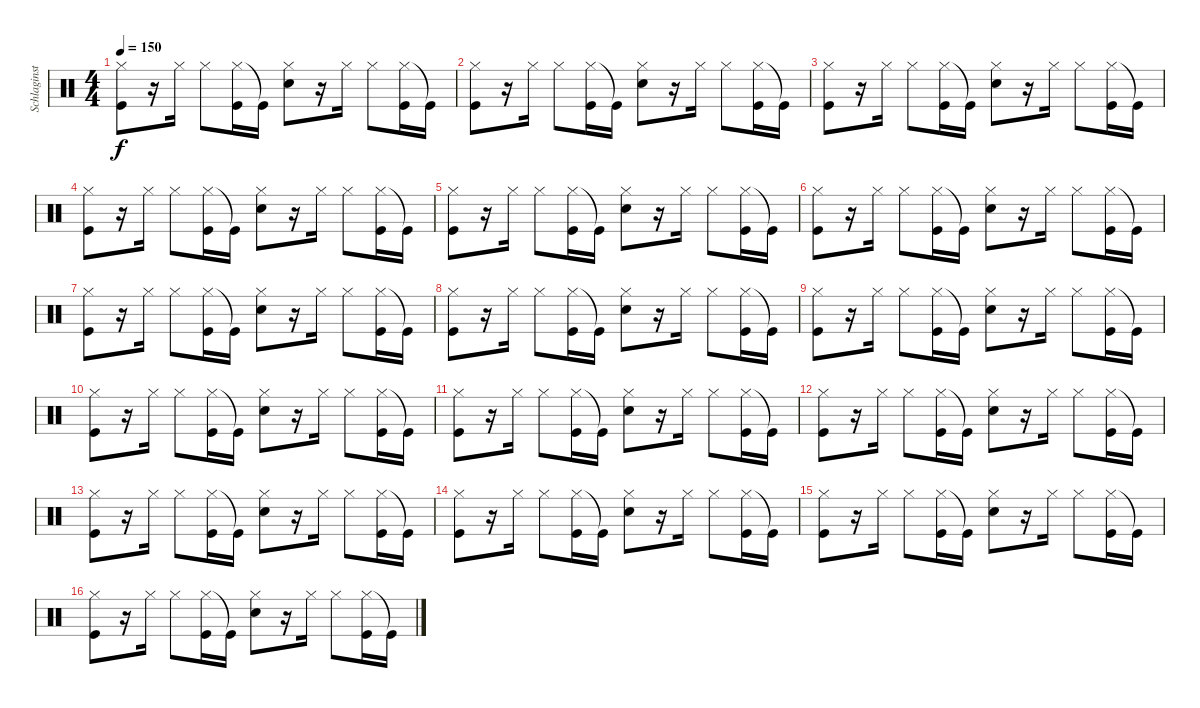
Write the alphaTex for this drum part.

\track ("Schlaginstrumente - Auswahl" "Schlaginst") {instrument percussion}
\staff {score}
\articulation defaults
\ts (4 4)
\tempo 150
\clef neutral
\ks c
("Hi-Hat (closed)" "Kick (hit)").8{dy f} r.16 "Hi-Hat (closed)".16 "Hi-Hat (closed)".8 ("Hi-Hat (closed)" "Kick (hit)").16 "Kick (hit)"{t}.16 ("Hi-Hat (closed)" "Hand Clap (hit)").8 r.16 "Hi-Hat (closed)".16 "Hi-Hat (closed)".8 ("Hi-Hat (closed)" "Kick (hit)").16 "Kick (hit)"{t}.16 |
("Hi-Hat (closed)" "Kick (hit)").8 r.16 "Hi-Hat (closed)".16 "Hi-Hat (closed)".8 ("Hi-Hat (closed)" "Kick (hit)").16 "Kick (hit)"{t}.16 ("Hi-Hat (closed)" "Hand Clap (hit)").8 r.16 "Hi-Hat (closed)".16 "Hi-Hat (closed)".8 ("Hi-Hat (closed)" "Kick (hit)").16 "Kick (hit)"{t}.16 |
("Kick (hit)" "Hi-Hat (closed)").8 r.16 "Hi-Hat (closed)".16 "Hi-Hat (closed)".8 ("Hi-Hat (closed)" "Kick (hit)").16 "Kick (hit)"{t}.16 ("Hi-Hat (closed)" "Hand Clap (hit)").8 r.16 "Hi-Hat (closed)".16 "Hi-Hat (closed)".8 ("Hi-Hat (closed)" "Kick (hit)").16 "Kick (hit)"{t}.16 |
("Hi-Hat (closed)" "Kick (hit)").8 r.16 "Hi-Hat (closed)".16 "Hi-Hat (closed)".8 ("Hi-Hat (closed)" "Kick (hit)").16 "Kick (hit)"{t}.16 ("Hi-Hat (closed)" "Hand Clap (hit)").8 r.16 "Hi-Hat (closed)".16 "Hi-Hat (closed)".8 ("Hi-Hat (closed)" "Kick (hit)").16 "Kick (hit)"{t}.16 |
("Kick (hit)" "Hi-Hat (closed)").8 r.16 "Hi-Hat (closed)".16 "Hi-Hat (closed)".8 ("Hi-Hat (closed)" "Kick (hit)").16 "Kick (hit)"{t}.16 ("Hi-Hat (closed)" "Hand Clap (hit)").8 r.16 "Hi-Hat (closed)".16 "Hi-Hat (closed)".8 ("Hi-Hat (closed)" "Kick (hit)").16 "Kick (hit)"{t}.16 |
("Hi-Hat (closed)" "Kick (hit)").8 r.16 "Hi-Hat (closed)".16 "Hi-Hat (closed)".8 ("Hi-Hat (closed)" "Kick (hit)").16 "Kick (hit)"{t}.16 ("Hi-Hat (closed)" "Hand Clap (hit)").8 r.16 "Hi-Hat (closed)".16 "Hi-Hat (closed)".8 ("Hi-Hat (closed)" "Kick (hit)").16 "Kick (hit)"{t}.16 |
("Kick (hit)" "Hi-Hat (closed)").8 r.16 "Hi-Hat (closed)".16 "Hi-Hat (closed)".8 ("Hi-Hat (closed)" "Kick (hit)").16 "Kick (hit)"{t}.16 ("Hi-Hat (closed)" "Hand Clap (hit)").8 r.16 "Hi-Hat (closed)".16 "Hi-Hat (closed)".8 ("Hi-Hat (closed)" "Kick (hit)").16 "Kick (hit)"{t}.16 |
("Kick (hit)" "Hi-Hat (closed)").8 r.16 "Hi-Hat (closed)".16 "Hi-Hat (closed)".8 ("Hi-Hat (closed)" "Kick (hit)").16 "Kick (hit)"{t}.16 ("Hi-Hat (closed)" "Hand Clap (hit)").8 r.16 "Hi-Hat (closed)".16 "Hi-Hat (closed)".8 ("Hi-Hat (closed)" "Kick (hit)").16 "Kick (hit)"{t}.16 |
("Hi-Hat (closed)" "Kick (hit)").8 r.16 "Hi-Hat (closed)".16 "Hi-Hat (closed)".8 ("Hi-Hat (closed)" "Kick (hit)").16 "Kick (hit)"{t}.16 ("Hi-Hat (closed)" "Hand Clap (hit)").8 r.16 "Hi-Hat (closed)".16 "Hi-Hat (closed)".8 ("Hi-Hat (closed)" "Kick (hit)").16 "Kick (hit)"{t}.16 |
("Hi-Hat (closed)" "Kick (hit)").8 r.16 "Hi-Hat (closed)".16 "Hi-Hat (closed)".8 ("Hi-Hat (closed)" "Kick (hit)").16 "Kick (hit)"{t}.16 ("Hi-Hat (closed)" "Hand Clap (hit)").8 r.16 "Hi-Hat (closed)".16 "Hi-Hat (closed)".8 ("Hi-Hat (closed)" "Kick (hit)").16 "Kick (hit)"{t}.16 |
("Kick (hit)" "Hi-Hat (closed)").8 r.16 "Hi-Hat (closed)".16 "Hi-Hat (closed)".8 ("Hi-Hat (closed)" "Kick (hit)").16 "Kick (hit)"{t}.16 ("Hi-Hat (closed)" "Hand Clap (hit)").8 r.16 "Hi-Hat (closed)".16 "Hi-Hat (closed)".8 ("Hi-Hat (closed)" "Kick (hit)").16 "Kick (hit)"{t}.16 |
("Hi-Hat (closed)" "Kick (hit)").8 r.16 "Hi-Hat (closed)".16 "Hi-Hat (closed)".8 ("Hi-Hat (closed)" "Kick (hit)").16 "Kick (hit)"{t}.16 ("Hi-Hat (closed)" "Hand Clap (hit)").8 r.16 "Hi-Hat (closed)".16 "Hi-Hat (closed)".8 ("Hi-Hat (closed)" "Kick (hit)").16 "Kick (hit)"{t}.16 |
("Kick (hit)" "Hi-Hat (closed)").8 r.16 "Hi-Hat (closed)".16 "Hi-Hat (closed)".8 ("Hi-Hat (closed)" "Kick (hit)").16 "Kick (hit)"{t}.16 ("Hi-Hat (closed)" "Hand Clap (hit)").8 r.16 "Hi-Hat (closed)".16 "Hi-Hat (closed)".8 ("Hi-Hat (closed)" "Kick (hit)").16 "Kick (hit)"{t}.16 |
("Hi-Hat (closed)" "Kick (hit)").8 r.16 "Hi-Hat (closed)".16 "Hi-Hat (closed)".8 ("Hi-Hat (closed)" "Kick (hit)").16 "Kick (hit)"{t}.16 ("Hi-Hat (closed)" "Hand Clap (hit)").8 r.16 "Hi-Hat (closed)".16 "Hi-Hat (closed)".8 ("Hi-Hat (closed)" "Kick (hit)").16 "Kick (hit)"{t}.16 |
("Kick (hit)" "Hi-Hat (closed)").8 r.16 "Hi-Hat (closed)".16 "Hi-Hat (closed)".8 ("Hi-Hat (closed)" "Kick (hit)").16 "Kick (hit)"{t}.16 ("Hi-Hat (closed)" "Hand Clap (hit)").8 r.16 "Hi-Hat (closed)".16 "Hi-Hat (closed)".8 ("Hi-Hat (closed)" "Kick (hit)").16 "Kick (hit)"{t}.16 |
("Hi-Hat (closed)" "Kick (hit)").8 r.16 "Hi-Hat (closed)".16 "Hi-Hat (closed)".8 ("Hi-Hat (closed)" "Kick (hit)").16 "Kick (hit)"{t}.16 ("Hi-Hat (closed)" "Hand Clap (hit)").8 r.16 "Hi-Hat (closed)".16 "Hi-Hat (closed)".8 ("Hi-Hat (closed)" "Kick (hit)").16 "Kick (hit)"{t}.16
